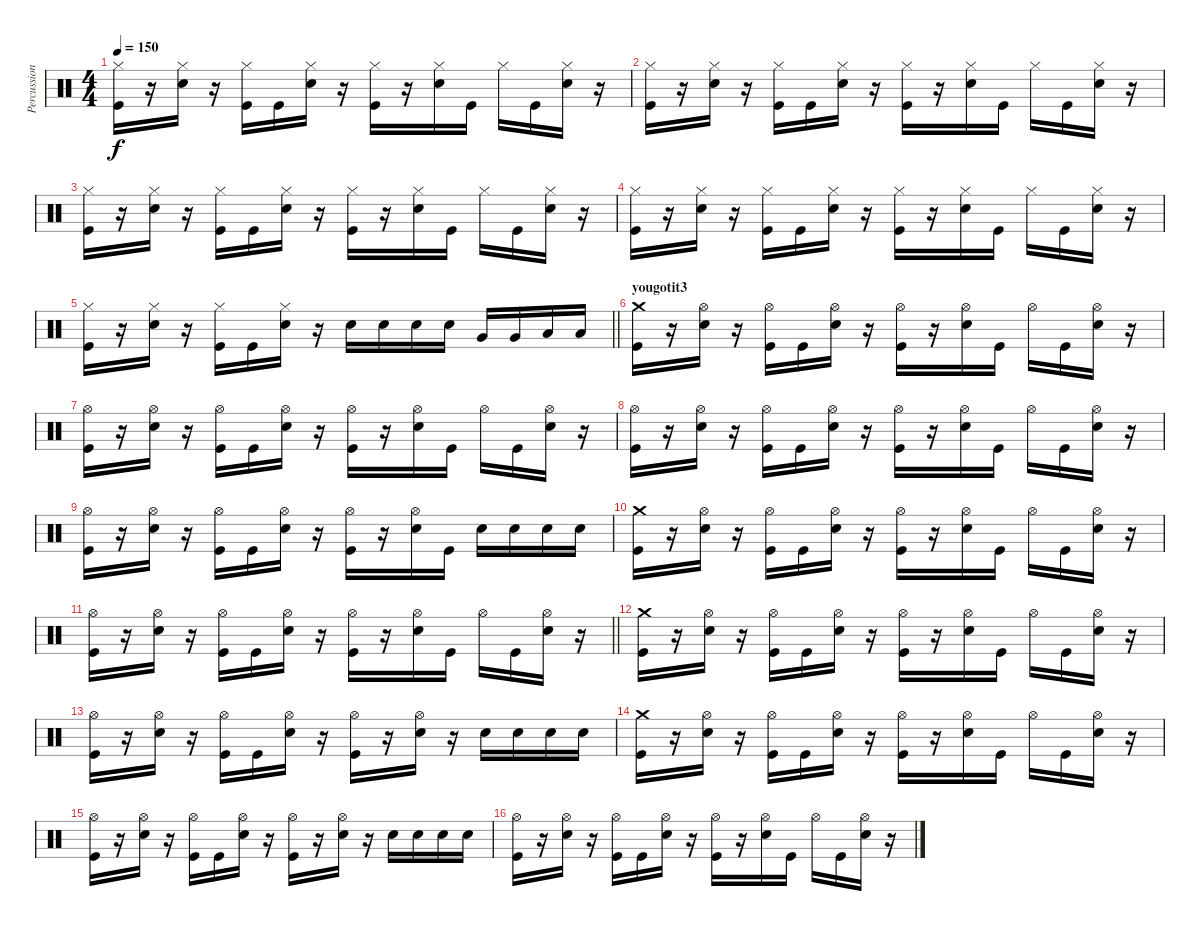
\track ("Percussion" "Percussion") {instrument percussion}
\staff {score}
\articulation defaults
\ts (4 4)
\tempo 150
\clef neutral
\ks c
("Hi-Hat (closed)" "Kick (hit)").16{dy f} r.16 ("Hi-Hat (closed)" "Snare (hit) 2").16 r.16 ("Hi-Hat (closed)" "Kick (hit)").16 "Kick (hit)".16 ("Hi-Hat (closed)" "Snare (hit) 2").16 r.16 ("Hi-Hat (closed)" "Kick (hit)").16 r.16 ("Hi-Hat (closed)" "Snare (hit) 2").16 "Kick (hit)".16 "Hi-Hat (closed)".16 "Kick (hit)".16 ("Hi-Hat (closed)" "Snare (hit) 2").16 r.16 |
("Hi-Hat (closed)" "Kick (hit)").16 r.16 ("Hi-Hat (closed)" "Snare (hit) 2").16 r.16 ("Hi-Hat (closed)" "Kick (hit)").16 "Kick (hit)".16 ("Hi-Hat (closed)" "Snare (hit) 2").16 r.16 ("Hi-Hat (closed)" "Kick (hit)").16 r.16 ("Hi-Hat (closed)" "Snare (hit) 2").16 "Kick (hit)".16 "Hi-Hat (closed)".16 "Kick (hit)".16 ("Hi-Hat (closed)" "Snare (hit) 2").16 r.16 |
("Hi-Hat (closed)" "Kick (hit)").16 r.16 ("Hi-Hat (closed)" "Snare (hit) 2").16 r.16 ("Hi-Hat (closed)" "Kick (hit)").16 "Kick (hit)".16 ("Hi-Hat (closed)" "Snare (hit) 2").16 r.16 ("Hi-Hat (closed)" "Kick (hit)").16 r.16 ("Hi-Hat (closed)" "Snare (hit) 2").16 "Kick (hit)".16 "Hi-Hat (closed)".16 "Kick (hit)".16 ("Hi-Hat (closed)" "Snare (hit) 2").16 r.16 |
("Hi-Hat (closed)" "Kick (hit)").16 r.16 ("Hi-Hat (closed)" "Snare (hit) 2").16 r.16 ("Hi-Hat (closed)" "Kick (hit)").16 "Kick (hit)".16 ("Hi-Hat (closed)" "Snare (hit) 2").16 r.16 ("Hi-Hat (closed)" "Kick (hit)").16 r.16 ("Hi-Hat (closed)" "Snare (hit) 2").16 "Kick (hit)".16 "Hi-Hat (closed)".16 "Kick (hit)".16 ("Hi-Hat (closed)" "Snare (hit) 2").16 r.16 |
\barLineRight lightlight
("Hi-Hat (closed)" "Kick (hit)").16 r.16 ("Hi-Hat (closed)" "Snare (hit) 2").16 r.16 ("Hi-Hat (closed)" "Kick (hit)").16 "Kick (hit)".16 ("Hi-Hat (closed)" "Snare (hit) 2").16 r.16 "Snare (hit) 2".16 "Snare (hit) 2".16 "Snare (hit) 2".16 "Snare (hit) 2".16 "Very Low Tom (hit)".16 "Very Low Tom (hit)".16 "Low Floor Tom (hit)".16 "Low Floor Tom (hit)".16 |
\section ("" "yougotit3")
("Crash medium (hit)" "Kick (hit)").16 r.16 ("Hi-Hat (open)" "Snare (hit) 2").16 r.16 ("Hi-Hat (open)" "Kick (hit)").16 "Kick (hit)".16 ("Hi-Hat (open)" "Snare (hit) 2").16 r.16 ("Hi-Hat (open)" "Kick (hit)").16 r.16 ("Hi-Hat (open)" "Snare (hit) 2").16 "Kick (hit)".16 "Hi-Hat (open)".16 "Kick (hit)".16 ("Hi-Hat (open)" "Snare (hit) 2").16 r.16 |
("Hi-Hat (open)" "Kick (hit)").16 r.16 ("Hi-Hat (open)" "Snare (hit) 2").16 r.16 ("Hi-Hat (open)" "Kick (hit)").16 "Kick (hit)".16 ("Hi-Hat (open)" "Snare (hit) 2").16 r.16 ("Hi-Hat (open)" "Kick (hit)").16 r.16 ("Hi-Hat (open)" "Snare (hit) 2").16 "Kick (hit)".16 "Hi-Hat (open)".16 "Kick (hit)".16 ("Hi-Hat (open)" "Snare (hit) 2").16 r.16 |
("Hi-Hat (open)" "Kick (hit)").16 r.16 ("Hi-Hat (open)" "Snare (hit) 2").16 r.16 ("Hi-Hat (open)" "Kick (hit)").16 "Kick (hit)".16 ("Hi-Hat (open)" "Snare (hit) 2").16 r.16 ("Hi-Hat (open)" "Kick (hit)").16 r.16 ("Hi-Hat (open)" "Snare (hit) 2").16 "Kick (hit)".16 "Hi-Hat (open)".16 "Kick (hit)".16 ("Hi-Hat (open)" "Snare (hit) 2").16 r.16 |
("Hi-Hat (open)" "Kick (hit)").16 r.16 ("Hi-Hat (open)" "Snare (hit) 2").16 r.16 ("Hi-Hat (open)" "Kick (hit)").16 "Kick (hit)".16 ("Hi-Hat (open)" "Snare (hit) 2").16 r.16 ("Hi-Hat (open)" "Kick (hit)").16 r.16 ("Hi-Hat (open)" "Snare (hit) 2").16 "Kick (hit)".16 "Snare (hit) 2".16 "Snare (hit) 2".16 "Snare (hit) 2".16 "Snare (hit) 2".16 |
("Crash medium (hit)" "Kick (hit)").16 r.16 ("Hi-Hat (open)" "Snare (hit) 2").16 r.16 ("Hi-Hat (open)" "Kick (hit)").16 "Kick (hit)".16 ("Hi-Hat (open)" "Snare (hit) 2").16 r.16 ("Hi-Hat (open)" "Kick (hit)").16 r.16 ("Hi-Hat (open)" "Snare (hit) 2").16 "Kick (hit)".16 "Hi-Hat (open)".16 "Kick (hit)".16 ("Hi-Hat (open)" "Snare (hit) 2").16 r.16 |
\barLineRight lightlight
("Hi-Hat (open)" "Kick (hit)").16 r.16 ("Hi-Hat (open)" "Snare (hit) 2").16 r.16 ("Hi-Hat (open)" "Kick (hit)").16 "Kick (hit)".16 ("Hi-Hat (open)" "Snare (hit) 2").16 r.16 ("Hi-Hat (open)" "Kick (hit)").16 r.16 ("Hi-Hat (open)" "Snare (hit) 2").16 "Kick (hit)".16 "Hi-Hat (open)".16 "Kick (hit)".16 ("Hi-Hat (open)" "Snare (hit) 2").16 r.16 |
("Crash medium (hit)" "Kick (hit)").16 r.16 ("Hi-Hat (open)" "Snare (hit) 2").16 r.16 ("Hi-Hat (open)" "Kick (hit)").16 "Kick (hit)".16 ("Hi-Hat (open)" "Snare (hit) 2").16 r.16 ("Hi-Hat (open)" "Kick (hit)").16 r.16 ("Hi-Hat (open)" "Snare (hit) 2").16 "Kick (hit)".16 "Hi-Hat (open)".16 "Kick (hit)".16 ("Hi-Hat (open)" "Snare (hit) 2").16 r.16 |
("Hi-Hat (open)" "Kick (hit)").16 r.16 ("Hi-Hat (open)" "Snare (hit) 2").16 r.16 ("Hi-Hat (open)" "Kick (hit)").16 "Kick (hit)".16 ("Hi-Hat (open)" "Snare (hit) 2").16 r.16 ("Hi-Hat (open)" "Kick (hit)").16 r.16 ("Hi-Hat (open)" "Snare (hit) 2").16 r.16 "Snare (hit) 2".16 "Snare (hit) 2".16 "Snare (hit) 2".16 "Snare (hit) 2".16 |
("Crash medium (hit)" "Kick (hit)").16 r.16 ("Hi-Hat (open)" "Snare (hit) 2").16 r.16 ("Hi-Hat (open)" "Kick (hit)").16 "Kick (hit)".16 ("Hi-Hat (open)" "Snare (hit) 2").16 r.16 ("Hi-Hat (open)" "Kick (hit)").16 r.16 ("Hi-Hat (open)" "Snare (hit) 2").16 "Kick (hit)".16 "Hi-Hat (open)".16 "Kick (hit)".16 ("Hi-Hat (open)" "Snare (hit) 2").16 r.16 |
("Hi-Hat (open)" "Kick (hit)").16 r.16 ("Hi-Hat (open)" "Snare (hit) 2").16 r.16 ("Hi-Hat (open)" "Kick (hit)").16 "Kick (hit)".16 ("Hi-Hat (open)" "Snare (hit) 2").16 r.16 ("Hi-Hat (open)" "Kick (hit)").16 r.16 ("Hi-Hat (open)" "Snare (hit) 2").16 r.16 "Snare (hit) 2".16 "Snare (hit) 2".16 "Snare (hit) 2".16 "Snare (hit) 2".16 |
("Hi-Hat (open)" "Kick (hit)").16 r.16 ("Hi-Hat (open)" "Snare (hit) 2").16 r.16 ("Hi-Hat (open)" "Kick (hit)").16 "Kick (hit)".16 ("Hi-Hat (open)" "Snare (hit) 2").16 r.16 ("Hi-Hat (open)" "Kick (hit)").16 r.16 ("Hi-Hat (open)" "Snare (hit) 2").16 "Kick (hit)".16 "Hi-Hat (open)".16 "Kick (hit)".16 ("Hi-Hat (open)" "Snare (hit) 2").16 r.16
